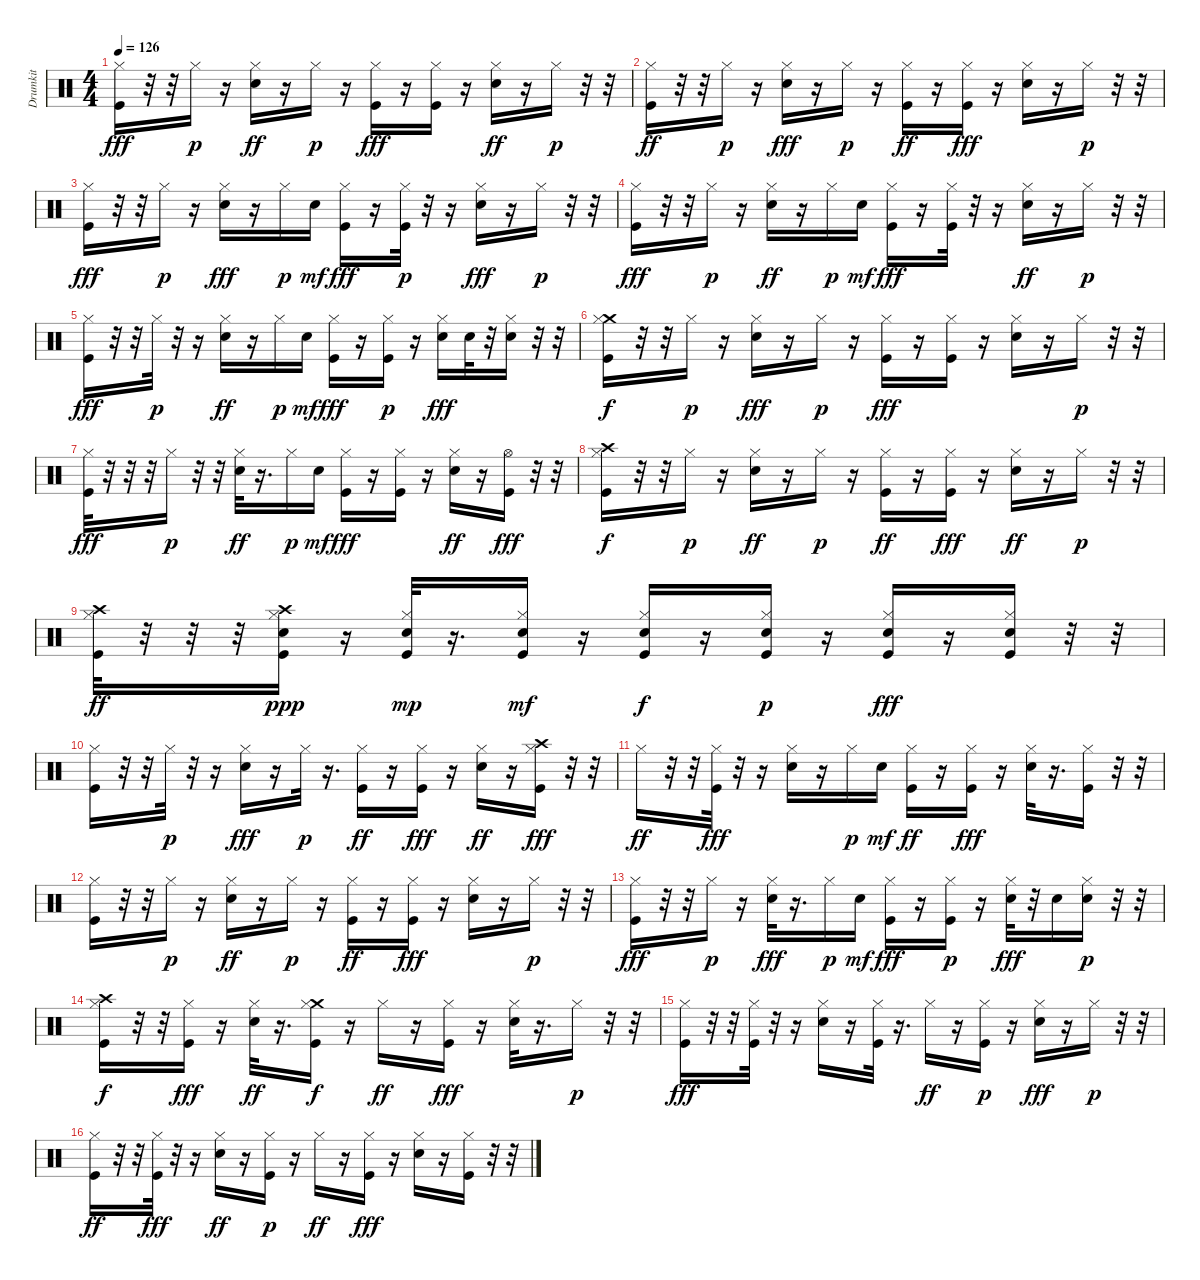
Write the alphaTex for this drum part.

\track ("Drumkit" "Drumkit") {instrument percussion}
\staff {score}
\articulation defaults
\ts (4 4)
\tempo 126
\clef neutral
\ks c
("Kick (hit)" "Hi-Hat (closed)").16{dy fff} r.32 r.32 "Hi-Hat (closed)".16{dy p} r.16 ("Hi-Hat (closed)" "Snare (hit) 2").16{dy ff} r.16 "Hi-Hat (closed)".16{dy p} r.16 ("Kick (hit)" "Hi-Hat (closed)").16{dy fff} r.16 ("Kick (hit)" "Hi-Hat (closed)").16 r.16 ("Hi-Hat (closed)" "Snare (hit) 2").16{dy ff} r.16 "Hi-Hat (closed)".16{dy p} r.32 r.32 |
("Hi-Hat (closed)" "Kick (hit)").16{dy ff} r.32 r.32 "Hi-Hat (closed)".16{dy p} r.16 ("Snare (hit) 2" "Hi-Hat (closed)").16{dy fff} r.16 "Hi-Hat (closed)".16{dy p} r.16 ("Hi-Hat (closed)" "Kick (hit)").16{dy ff} r.16 ("Kick (hit)" "Hi-Hat (closed)").16{dy fff} r.16 ("Snare (hit) 2" "Hi-Hat (closed)").16 r.16 "Hi-Hat (closed)".16{dy p} r.32 r.32 |
("Kick (hit)" "Hi-Hat (closed)").16{dy fff} r.32 r.32 "Hi-Hat (closed)".16{dy p} r.16 ("Snare (hit) 2" "Hi-Hat (closed)").16{dy fff} r.16 "Hi-Hat (closed)".16{dy p} "Snare (hit) 2".16{dy mf} ("Kick (hit)" "Hi-Hat (closed)").16{dy fff} r.16 ("Hi-Hat (closed)" "Kick (hit)").32{dy p} r.32 r.16 ("Snare (hit) 2" "Hi-Hat (closed)").16{dy fff} r.16 "Hi-Hat (closed)".16{dy p} r.32 r.32 |
("Kick (hit)" "Hi-Hat (closed)").16{dy fff} r.32 r.32 "Hi-Hat (closed)".16{dy p} r.16 ("Hi-Hat (closed)" "Snare (hit) 2").16{dy ff} r.16 "Hi-Hat (closed)".16{dy p} "Snare (hit) 2".16{dy mf} ("Kick (hit)" "Hi-Hat (closed)").16{dy fff} r.16 ("Kick (hit)" "Hi-Hat (closed)").32 r.32 r.16 ("Hi-Hat (closed)" "Snare (hit) 2").16{dy ff} r.16 "Hi-Hat (closed)".16{dy p} r.32 r.32 |
("Kick (hit)" "Hi-Hat (closed)").16{dy fff} r.32 r.32 "Hi-Hat (closed)".32{dy p} r.32 r.16 ("Hi-Hat (closed)" "Snare (hit) 2").16{dy ff} r.16 "Hi-Hat (closed)".16{dy p} "Snare (hit) 2".16{dy mf} ("Kick (hit)" "Hi-Hat (closed)").16{dy fff} r.16 ("Hi-Hat (closed)" "Kick (hit)").16{dy p} r.16 ("Snare (hit) 2" "Hi-Hat (closed)").16{dy fff} "Snare (hit) 2".32 r.32 ("Snare (hit) 2" "Hi-Hat (closed)").16 r.32 r.32 |
("Crash medium (hit)" "Hi-Hat (closed)" "Kick (hit)").16{dy f} r.32 r.32 "Hi-Hat (closed)".16{dy p} r.16 ("Snare (hit) 2" "Hi-Hat (closed)").16{dy fff} r.16 "Hi-Hat (closed)".16{dy p} r.16 ("Kick (hit)" "Hi-Hat (closed)").16{dy fff} r.16 ("Kick (hit)" "Hi-Hat (closed)").16 r.16 ("Snare (hit) 2" "Hi-Hat (closed)").16 r.16 "Hi-Hat (closed)".16{dy p} r.32 r.32 |
("Kick (hit)" "Hi-Hat (closed)").32{dy fff} r.32 r.32 r.32 "Hi-Hat (closed)".16{dy p} r.32 r.32 ("Hi-Hat (closed)" "Snare (hit) 2").32{dy ff} r.16{d} "Hi-Hat (closed)".16{dy p} "Snare (hit) 2".16{dy mf} ("Kick (hit)" "Hi-Hat (closed)").16{dy fff} r.16 ("Kick (hit)" "Hi-Hat (closed)").16 r.16 ("Hi-Hat (closed)" "Snare (hit) 2").16{dy ff} r.16 ("Kick (hit)" "Hi-Hat (open)").16{dy fff} r.32 r.32 |
("Crash high (hit)" "Hi-Hat (closed)" "Kick (hit)").16{dy f} r.32 r.32 "Hi-Hat (closed)".16{dy p} r.16 ("Hi-Hat (closed)" "Snare (hit) 2").16{dy ff} r.16 "Hi-Hat (closed)".16{dy p} r.16 ("Hi-Hat (closed)" "Kick (hit)").16{dy ff} r.16 ("Kick (hit)" "Hi-Hat (closed)").16{dy fff} r.16 ("Hi-Hat (closed)" "Snare (hit) 2").16{dy ff} r.16 "Hi-Hat (closed)".16{dy p} r.32 r.32 |
("Crash high (hit)" "Hi-Hat (closed)" "Kick (hit)").32{dy ff} r.32 r.32 r.32 ("Crash high (hit)" "Kick (hit)" "Hi-Hat (closed)" "Snare (hit) 2").16{dy ppp} r.16 ("Kick (hit)" "Hi-Hat (closed)" "Snare (hit) 2").32{dy mp} r.16{d} ("Snare (hit) 2" "Kick (hit)" "Hi-Hat (closed)").16{dy mf} r.16 ("Kick (hit)" "Snare (hit) 2" "Hi-Hat (closed)").16{dy f} r.16 ("Hi-Hat (closed)" "Snare (hit) 2" "Kick (hit)").16{dy p} r.16 ("Snare (hit) 2" "Kick (hit)" "Hi-Hat (closed)").16{dy fff} r.16 ("Snare (hit) 2" "Hi-Hat (closed)" "Kick (hit)").16 r.32 r.32 |
("Kick (hit)" "Hi-Hat (closed)").16 r.32 r.32 "Hi-Hat (closed)".32{dy p} r.32 r.16 ("Snare (hit) 2" "Hi-Hat (closed)").16{dy fff} r.16 "Hi-Hat (closed)".32{dy p} r.16{d} ("Hi-Hat (closed)" "Kick (hit)").16{dy ff} r.16 ("Kick (hit)" "Hi-Hat (closed)").16{dy fff} r.16 ("Hi-Hat (closed)" "Snare (hit) 2").16{dy ff} r.16 ("Kick (hit)" "Crash high (hit)" "Hi-Hat (closed)").16{dy fff} r.32 r.32 |
"Hi-Hat (closed)".16{dy ff} r.32 r.32 ("Kick (hit)" "Hi-Hat (closed)").32{dy fff} r.32 r.16 ("Snare (hit) 2" "Hi-Hat (closed)").16 r.16 "Hi-Hat (closed)".16{dy p} "Snare (hit) 2".16{dy mf} ("Hi-Hat (closed)" "Kick (hit)").16{dy ff} r.16 ("Kick (hit)" "Hi-Hat (closed)").16{dy fff} r.16 ("Snare (hit) 2" "Hi-Hat (closed)").32 r.16{d} ("Kick (hit)" "Hi-Hat (closed)").16 r.32 r.32 |
("Kick (hit)" "Hi-Hat (closed)").16 r.32 r.32 "Hi-Hat (closed)".16{dy p} r.16 ("Hi-Hat (closed)" "Snare (hit) 2").16{dy ff} r.16 "Hi-Hat (closed)".16{dy p} r.16 ("Hi-Hat (closed)" "Kick (hit)").16{dy ff} r.16 ("Kick (hit)" "Hi-Hat (closed)").16{dy fff} r.16 ("Snare (hit) 2" "Hi-Hat (closed)").16 r.16 "Hi-Hat (closed)".16{dy p} r.32 r.32 |
("Kick (hit)" "Hi-Hat (closed)").16{dy fff} r.32 r.32 "Hi-Hat (closed)".16{dy p} r.16 ("Snare (hit) 2" "Hi-Hat (closed)").32{dy fff} r.16{d} "Hi-Hat (closed)".16{dy p} "Snare (hit) 2".16{dy mf} ("Kick (hit)" "Hi-Hat (closed)").16{dy fff} r.16 ("Hi-Hat (closed)" "Kick (hit)").16{dy p} r.16 ("Snare (hit) 2" "Hi-Hat (closed)").32{dy fff} r.32 "Snare (hit) 2".16 ("Hi-Hat (closed)" "Snare (hit) 2").16{dy p} r.32 r.32 |
("Crash high (hit)" "Hi-Hat (closed)" "Kick (hit)").16{dy f} r.32 r.32 ("Kick (hit)" "Hi-Hat (closed)").16{dy fff} r.16 ("Hi-Hat (closed)" "Snare (hit) 2").32{dy ff} r.16{d} ("Crash medium (hit)" "Hi-Hat (closed)" "Kick (hit)").16{dy f} r.16 "Hi-Hat (closed)".16{dy ff} r.16 ("Kick (hit)" "Hi-Hat (closed)").16{dy fff} r.16 ("Snare (hit) 2" "Hi-Hat (closed)").32 r.16{d} "Hi-Hat (closed)".16{dy p} r.32 r.32 |
("Kick (hit)" "Hi-Hat (closed)").16{dy fff} r.32 r.32 ("Kick (hit)" "Hi-Hat (closed)").32 r.32 r.16 ("Snare (hit) 2" "Hi-Hat (closed)").16 r.16 ("Kick (hit)" "Hi-Hat (closed)").32 r.16{d} "Hi-Hat (closed)".16{dy ff} r.16 ("Hi-Hat (closed)" "Kick (hit)").16{dy p} r.16 ("Snare (hit) 2" "Hi-Hat (closed)").16{dy fff} r.16 "Hi-Hat (closed)".16{dy p} r.32 r.32 |
("Hi-Hat (closed)" "Kick (hit)").16{dy ff} r.32 r.32 ("Kick (hit)" "Hi-Hat (closed)").32{dy fff} r.32 r.16 ("Hi-Hat (closed)" "Snare (hit) 2").16{dy ff} r.16 ("Hi-Hat (closed)" "Kick (hit)").16{dy p} r.16 "Hi-Hat (closed)".16{dy ff} r.16 ("Kick (hit)" "Hi-Hat (closed)").16{dy fff} r.16 ("Snare (hit) 2" "Hi-Hat (closed)").16 r.16 ("Kick (hit)" "Hi-Hat (closed)").16 r.32 r.32
